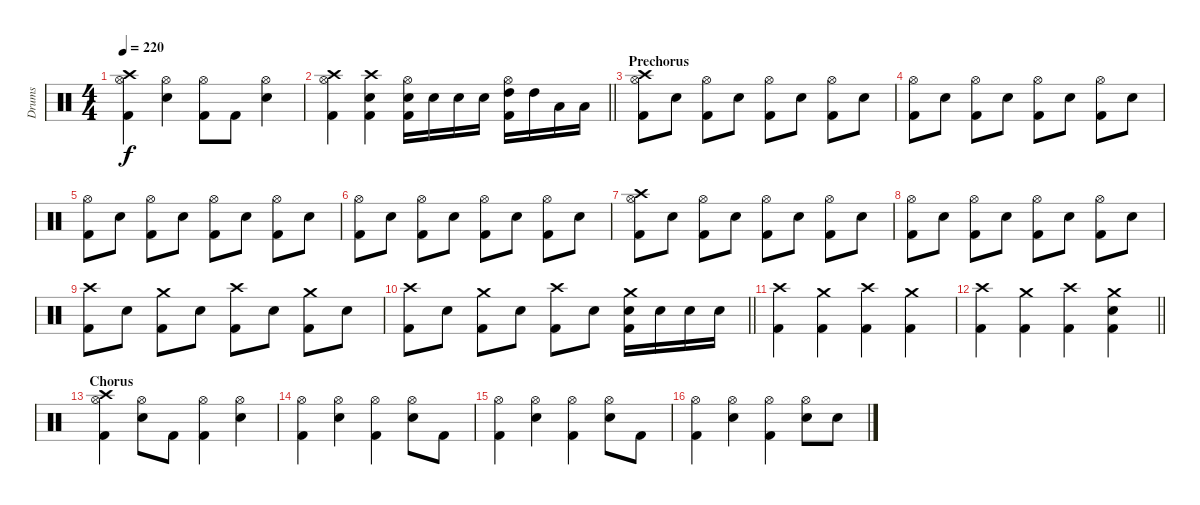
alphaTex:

\track ("Drums" "Drums") {instrument percussion}
\staff {score}
\articulation defaults
\ts (4 4)
\tempo 220
\clef neutral
\ks c
("Crash high (hit)" "Hi-Hat (open)" "Kick (hit) 2").4{dy f} ("Hi-Hat (open)" "Snare (hit) 2").4 ("Hi-Hat (open)" "Kick (hit) 2").8 "Kick (hit) 2".8 ("Hi-Hat (open)" "Snare (hit) 2").4 |
\barLineRight lightlight
("Crash high (hit)" "Hi-Hat (open)" "Kick (hit) 2").4 ("Crash high (hit)" "Snare (hit) 2" "Kick (hit) 2").4 ("Hi-Hat (open)" "Snare (hit) 2" "Kick (hit) 2").16 "Snare (hit) 2".16 "Snare (hit) 2".16 "Snare (hit) 2".16 ("Hi-Hat (open)" "High Tom (hit)" "Kick (hit) 2").16 "High Tom (hit)".16 "Low Tom (hit)".16 "Low Tom (hit)".16 |
\section ("" "Prechorus")
("Crash high (hit)" "Hi-Hat (open)" "Kick (hit) 2").8 "Snare (hit) 2".8 ("Hi-Hat (open)" "Kick (hit) 2").8 "Snare (hit) 2".8 ("Hi-Hat (open)" "Kick (hit) 2").8 "Snare (hit) 2".8 ("Hi-Hat (open)" "Kick (hit) 2").8 "Snare (hit) 2".8 |
("Hi-Hat (open)" "Kick (hit) 2").8 "Snare (hit) 2".8 ("Hi-Hat (open)" "Kick (hit) 2").8 "Snare (hit) 2".8 ("Hi-Hat (open)" "Kick (hit) 2").8 "Snare (hit) 2".8 ("Hi-Hat (open)" "Kick (hit) 2").8 "Snare (hit) 2".8 |
("Hi-Hat (open)" "Kick (hit) 2").8 "Snare (hit) 2".8 ("Hi-Hat (open)" "Kick (hit) 2").8 "Snare (hit) 2".8 ("Hi-Hat (open)" "Kick (hit) 2").8 "Snare (hit) 2".8 ("Hi-Hat (open)" "Kick (hit) 2").8 "Snare (hit) 2".8 |
("Hi-Hat (open)" "Kick (hit) 2").8 "Snare (hit) 2".8 ("Hi-Hat (open)" "Kick (hit) 2").8 "Snare (hit) 2".8 ("Hi-Hat (open)" "Kick (hit) 2").8 "Snare (hit) 2".8 ("Hi-Hat (open)" "Kick (hit) 2").8 "Snare (hit) 2".8 |
("Crash high (hit)" "Hi-Hat (open)" "Kick (hit) 2").8 "Snare (hit) 2".8 ("Hi-Hat (open)" "Kick (hit) 2").8 "Snare (hit) 2".8 ("Hi-Hat (open)" "Kick (hit) 2").8 "Snare (hit) 2".8 ("Hi-Hat (open)" "Kick (hit) 2").8 "Snare (hit) 2".8 |
("Hi-Hat (open)" "Kick (hit) 2").8 "Snare (hit) 2".8 ("Hi-Hat (open)" "Kick (hit) 2").8 "Snare (hit) 2".8 ("Hi-Hat (open)" "Kick (hit) 2").8 "Snare (hit) 2".8 ("Hi-Hat (open)" "Kick (hit) 2").8 "Snare (hit) 2".8 |
("Crash high (hit)" "Kick (hit) 2").8 "Snare (hit) 2".8 ("Crash medium (hit)" "Kick (hit) 2").8 "Snare (hit) 2".8 ("Crash high (hit)" "Kick (hit) 2").8 "Snare (hit) 2".8 ("Crash medium (hit)" "Kick (hit) 2").8 "Snare (hit) 2".8 |
\barLineRight lightlight
("Crash high (hit)" "Kick (hit) 2").8 "Snare (hit) 2".8 ("Crash medium (hit)" "Kick (hit) 2").8 "Snare (hit) 2".8 ("Crash high (hit)" "Kick (hit) 2").8 "Snare (hit) 2".8 ("Crash medium (hit)" "Snare (hit) 2" "Kick (hit) 2").16 "Snare (hit) 2".16 "Snare (hit) 2".16 "Snare (hit) 2".16 |
("Crash high (hit)" "Kick (hit) 2").4 ("Crash medium (hit)" "Kick (hit) 2").4 ("Crash high (hit)" "Kick (hit) 2").4 ("Crash medium (hit)" "Kick (hit) 2").4 |
\barLineRight lightlight
("Crash high (hit)" "Kick (hit) 2").4 ("Crash medium (hit)" "Kick (hit) 2").4 ("Crash high (hit)" "Kick (hit) 2").4 ("Crash medium (hit)" "Snare (hit) 2" "Kick (hit) 2").4 |
\section ("" "Chorus")
("Crash high (hit)" "Hi-Hat (open)" "Kick (hit) 2").4 ("Hi-Hat (open)" "Snare (hit) 2").8 "Kick (hit) 2".8 ("Hi-Hat (open)" "Kick (hit) 2").4 ("Hi-Hat (open)" "Snare (hit) 2").4 |
("Hi-Hat (open)" "Kick (hit) 2").4 ("Hi-Hat (open)" "Snare (hit) 2").4 ("Hi-Hat (open)" "Kick (hit) 2").4 ("Hi-Hat (open)" "Snare (hit) 2").8 "Kick (hit) 2".8 |
("Hi-Hat (open)" "Kick (hit) 2").4 ("Hi-Hat (open)" "Snare (hit) 2").4 ("Hi-Hat (open)" "Kick (hit) 2").4 ("Hi-Hat (open)" "Snare (hit) 2").8 "Kick (hit) 2".8 |
("Hi-Hat (open)" "Kick (hit) 2").4 ("Hi-Hat (open)" "Snare (hit) 2").4 ("Hi-Hat (open)" "Kick (hit) 2").4 ("Hi-Hat (open)" "Snare (hit) 2").8 "Snare (hit) 2".8
